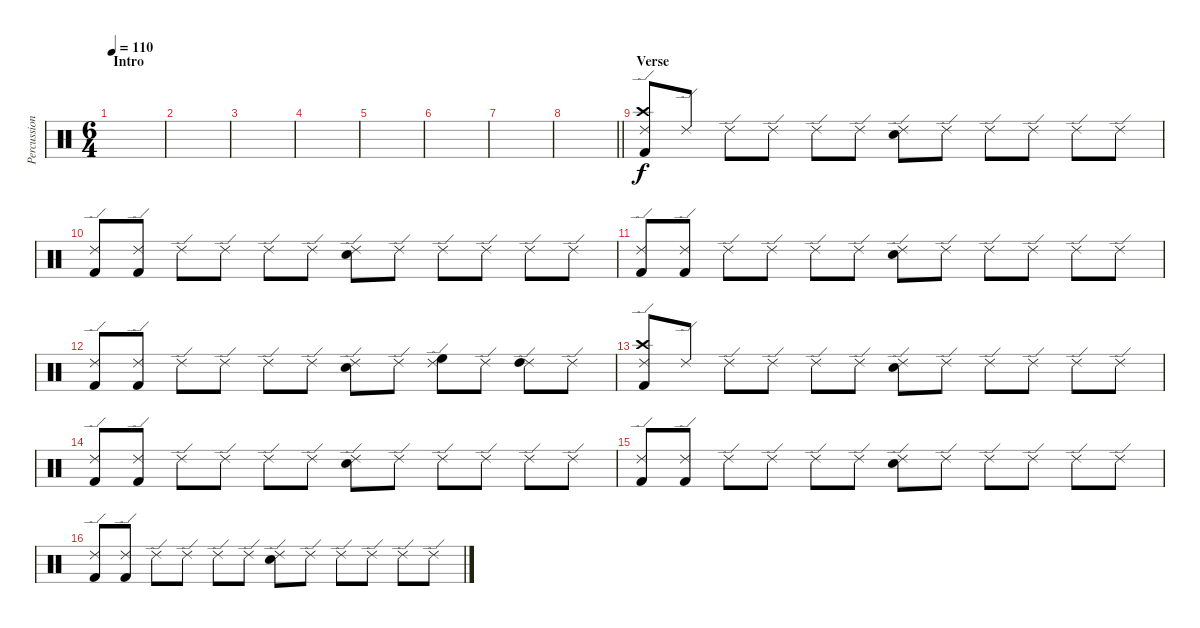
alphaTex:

\track ("Percussion" "Percussion") {instrument percussion}
\staff {score}
\articulation defaults
\ts (6 4)
\section ("" "Intro")
\tempo 110
\clef neutral
\ks c
|
|
|
|
|
|
|
\barLineRight lightlight
|
\section ("" "Verse")
("Ride (edge) 2" "Crash high (hit)" "Kick (hit) 2").8 "Ride (edge) 2".8 "Ride (edge) 2".8 "Ride (edge) 2".8 "Ride (edge) 2".8 "Ride (edge) 2".8 ("Ride (edge) 2" "Electric Snare (hit)").8 "Ride (edge) 2".8 "Ride (edge) 2".8 "Ride (edge) 2".8 "Ride (edge) 2".8 "Ride (edge) 2".8 |
("Ride (edge) 2" "Kick (hit) 2").8 ("Ride (edge) 2" "Kick (hit) 2").8 "Ride (edge) 2".8 "Ride (edge) 2".8 "Ride (edge) 2".8 "Ride (edge) 2".8 ("Ride (edge) 2" "Electric Snare (hit)").8 "Ride (edge) 2".8 "Ride (edge) 2".8 "Ride (edge) 2".8 "Ride (edge) 2".8 "Ride (edge) 2".8 |
("Ride (edge) 2" "Kick (hit) 2").8 ("Ride (edge) 2" "Kick (hit) 2").8 "Ride (edge) 2".8 "Ride (edge) 2".8 "Ride (edge) 2".8 "Ride (edge) 2".8 ("Ride (edge) 2" "Electric Snare (hit)").8 "Ride (edge) 2".8 "Ride (edge) 2".8 "Ride (edge) 2".8 "Ride (edge) 2".8 "Ride (edge) 2".8 |
("Ride (edge) 2" "Kick (hit) 2").8 ("Ride (edge) 2" "Kick (hit) 2").8 "Ride (edge) 2".8 "Ride (edge) 2".8 "Ride (edge) 2".8 "Ride (edge) 2".8 ("Ride (edge) 2" "Electric Snare (hit)").8 "Ride (edge) 2".8 ("Ride (edge) 2" "High Floor Tom (hit)").8 "Ride (edge) 2".8 ("Ride (edge) 2" "High Tom (hit)").8 "Ride (edge) 2".8 |
("Ride (edge) 2" "Kick (hit) 2" "Crash high (hit)").8 "Ride (edge) 2".8 "Ride (edge) 2".8 "Ride (edge) 2".8 "Ride (edge) 2".8 "Ride (edge) 2".8 ("Ride (edge) 2" "Electric Snare (hit)").8 "Ride (edge) 2".8 "Ride (edge) 2".8 "Ride (edge) 2".8 "Ride (edge) 2".8 "Ride (edge) 2".8 |
("Ride (edge) 2" "Kick (hit) 2").8 ("Ride (edge) 2" "Kick (hit) 2").8 "Ride (edge) 2".8 "Ride (edge) 2".8 "Ride (edge) 2".8 "Ride (edge) 2".8 ("Ride (edge) 2" "Electric Snare (hit)").8 "Ride (edge) 2".8 "Ride (edge) 2".8 "Ride (edge) 2".8 "Ride (edge) 2".8 "Ride (edge) 2".8 |
("Ride (edge) 2" "Kick (hit) 2").8 ("Ride (edge) 2" "Kick (hit) 2").8 "Ride (edge) 2".8 "Ride (edge) 2".8 "Ride (edge) 2".8 "Ride (edge) 2".8 ("Ride (edge) 2" "Electric Snare (hit)").8 "Ride (edge) 2".8 "Ride (edge) 2".8 "Ride (edge) 2".8 "Ride (edge) 2".8 "Ride (edge) 2".8 |
("Ride (edge) 2" "Kick (hit) 2").8 ("Ride (edge) 2" "Kick (hit) 2").8 "Ride (edge) 2".8 "Ride (edge) 2".8 "Ride (edge) 2".8 "Ride (edge) 2".8 ("Ride (edge) 2" "Electric Snare (hit)").8 "Ride (edge) 2".8 "Ride (edge) 2".8 "Ride (edge) 2".8 "Ride (edge) 2".8 "Ride (edge) 2".8
